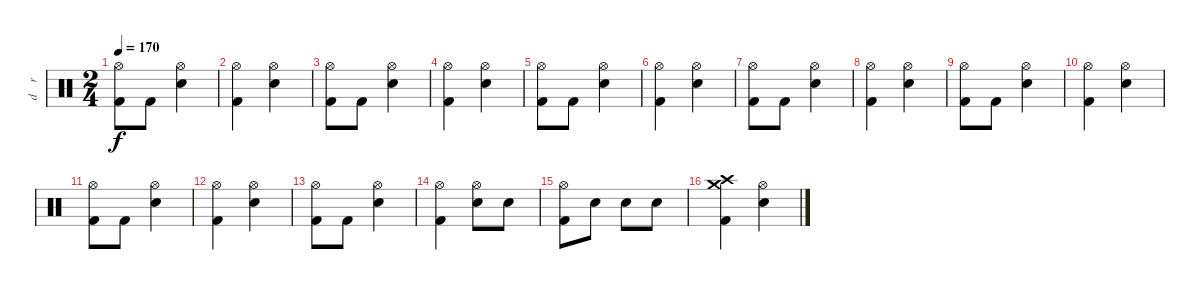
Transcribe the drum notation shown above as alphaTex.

\track ("d    r     u     m    s" "d    r    ") {instrument percussion}
\staff {score}
\articulation defaults
\ts (2 4)
\tempo 170
\clef neutral
\ks c
("Hi-Hat (open)" "Kick (hit) 2").8{dy f} "Kick (hit) 2".8 ("Hi-Hat (open)" "Electric Snare (hit)").4 |
("Hi-Hat (open)" "Kick (hit) 2").4 ("Hi-Hat (open)" "Electric Snare (hit)").4 |
("Hi-Hat (open)" "Kick (hit) 2").8 "Kick (hit) 2".8 ("Hi-Hat (open)" "Electric Snare (hit)").4 |
("Hi-Hat (open)" "Kick (hit) 2").4 ("Hi-Hat (open)" "Electric Snare (hit)").4 |
("Hi-Hat (open)" "Kick (hit) 2").8 "Kick (hit) 2".8 ("Hi-Hat (open)" "Electric Snare (hit)").4 |
("Hi-Hat (open)" "Kick (hit) 2").4 ("Hi-Hat (open)" "Electric Snare (hit)").4 |
("Hi-Hat (open)" "Kick (hit) 2").8 "Kick (hit) 2".8 ("Hi-Hat (open)" "Electric Snare (hit)").4 |
("Hi-Hat (open)" "Kick (hit) 2").4 ("Hi-Hat (open)" "Electric Snare (hit)").4 |
("Hi-Hat (open)" "Kick (hit) 2").8 "Kick (hit) 2".8 ("Hi-Hat (open)" "Electric Snare (hit)").4 |
("Hi-Hat (open)" "Kick (hit) 2").4 ("Hi-Hat (open)" "Electric Snare (hit)").4 |
("Hi-Hat (open)" "Kick (hit) 2").8 "Kick (hit) 2".8 ("Hi-Hat (open)" "Electric Snare (hit)").4 |
("Hi-Hat (open)" "Kick (hit) 2").4 ("Hi-Hat (open)" "Electric Snare (hit)").4 |
("Hi-Hat (open)" "Kick (hit) 2").8 "Kick (hit) 2".8 ("Hi-Hat (open)" "Electric Snare (hit)").4 |
("Hi-Hat (open)" "Kick (hit) 2").4 ("Hi-Hat (open)" "Electric Snare (hit)").8 "Electric Snare (hit)".8 |
("Hi-Hat (open)" "Kick (hit) 2").8 "Electric Snare (hit)".8 "Electric Snare (hit)".8 "Electric Snare (hit)".8 |
("Crash high (hit)" "Crash medium (hit)" "Kick (hit) 2").4 ("Hi-Hat (open)" "Electric Snare (hit)").4
